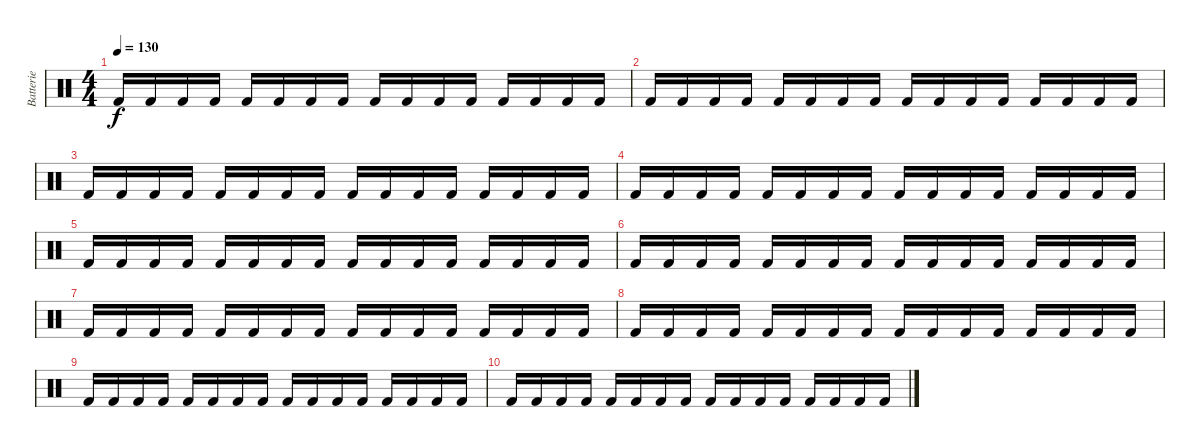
\track ("Batterie" "Batterie") {instrument percussion}
\staff {score}
\articulation defaults
\ts (4 4)
\tempo 130
\clef neutral
\ks c "Kick (hit) 2".16{dy f} "Kick (hit) 2".16 "Kick (hit) 2".16 "Kick (hit) 2".16 "Kick (hit) 2".16 "Kick (hit) 2".16 "Kick (hit) 2".16 "Kick (hit) 2".16 "Kick (hit) 2".16 "Kick (hit) 2".16 "Kick (hit) 2".16 "Kick (hit) 2".16 "Kick (hit) 2".16 "Kick (hit) 2".16 "Kick (hit) 2".16 "Kick (hit) 2".16
|
"Kick (hit) 2".16 "Kick (hit) 2".16 "Kick (hit) 2".16 "Kick (hit) 2".16 "Kick (hit) 2".16 "Kick (hit) 2".16 "Kick (hit) 2".16 "Kick (hit) 2".16 "Kick (hit) 2".16 "Kick (hit) 2".16 "Kick (hit) 2".16 "Kick (hit) 2".16 "Kick (hit) 2".16 "Kick (hit) 2".16 "Kick (hit) 2".16 "Kick (hit) 2".16 |
"Kick (hit) 2".16 "Kick (hit) 2".16 "Kick (hit) 2".16 "Kick (hit) 2".16 "Kick (hit) 2".16 "Kick (hit) 2".16 "Kick (hit) 2".16 "Kick (hit) 2".16 "Kick (hit) 2".16 "Kick (hit) 2".16 "Kick (hit) 2".16 "Kick (hit) 2".16 "Kick (hit) 2".16 "Kick (hit) 2".16 "Kick (hit) 2".16 "Kick (hit) 2".16 |
"Kick (hit) 2".16 "Kick (hit) 2".16 "Kick (hit) 2".16 "Kick (hit) 2".16 "Kick (hit) 2".16 "Kick (hit) 2".16 "Kick (hit) 2".16 "Kick (hit) 2".16 "Kick (hit) 2".16 "Kick (hit) 2".16 "Kick (hit) 2".16 "Kick (hit) 2".16 "Kick (hit) 2".16 "Kick (hit) 2".16 "Kick (hit) 2".16 "Kick (hit) 2".16 |
"Kick (hit) 2".16 "Kick (hit) 2".16 "Kick (hit) 2".16 "Kick (hit) 2".16 "Kick (hit) 2".16 "Kick (hit) 2".16 "Kick (hit) 2".16 "Kick (hit) 2".16 "Kick (hit) 2".16 "Kick (hit) 2".16 "Kick (hit) 2".16 "Kick (hit) 2".16 "Kick (hit) 2".16 "Kick (hit) 2".16 "Kick (hit) 2".16 "Kick (hit) 2".16 |
"Kick (hit) 2".16 "Kick (hit) 2".16 "Kick (hit) 2".16 "Kick (hit) 2".16 "Kick (hit) 2".16 "Kick (hit) 2".16 "Kick (hit) 2".16 "Kick (hit) 2".16 "Kick (hit) 2".16 "Kick (hit) 2".16 "Kick (hit) 2".16 "Kick (hit) 2".16 "Kick (hit) 2".16 "Kick (hit) 2".16 "Kick (hit) 2".16 "Kick (hit) 2".16 |
"Kick (hit) 2".16 "Kick (hit) 2".16 "Kick (hit) 2".16 "Kick (hit) 2".16 "Kick (hit) 2".16 "Kick (hit) 2".16 "Kick (hit) 2".16 "Kick (hit) 2".16 "Kick (hit) 2".16 "Kick (hit) 2".16 "Kick (hit) 2".16 "Kick (hit) 2".16 "Kick (hit) 2".16 "Kick (hit) 2".16 "Kick (hit) 2".16 "Kick (hit) 2".16 |
"Kick (hit) 2".16 "Kick (hit) 2".16 "Kick (hit) 2".16 "Kick (hit) 2".16 "Kick (hit) 2".16 "Kick (hit) 2".16 "Kick (hit) 2".16 "Kick (hit) 2".16 "Kick (hit) 2".16 "Kick (hit) 2".16 "Kick (hit) 2".16 "Kick (hit) 2".16 "Kick (hit) 2".16 "Kick (hit) 2".16 "Kick (hit) 2".16 "Kick (hit) 2".16 |
"Kick (hit) 2".16 "Kick (hit) 2".16 "Kick (hit) 2".16 "Kick (hit) 2".16 "Kick (hit) 2".16 "Kick (hit) 2".16 "Kick (hit) 2".16 "Kick (hit) 2".16 "Kick (hit) 2".16 "Kick (hit) 2".16 "Kick (hit) 2".16 "Kick (hit) 2".16 "Kick (hit) 2".16 "Kick (hit) 2".16 "Kick (hit) 2".16 "Kick (hit) 2".16 |
"Kick (hit) 2".16 "Kick (hit) 2".16 "Kick (hit) 2".16 "Kick (hit) 2".16 "Kick (hit) 2".16 "Kick (hit) 2".16 "Kick (hit) 2".16 "Kick (hit) 2".16 "Kick (hit) 2".16 "Kick (hit) 2".16 "Kick (hit) 2".16 "Kick (hit) 2".16 "Kick (hit) 2".16 "Kick (hit) 2".16 "Kick (hit) 2".16 "Kick (hit) 2".16
